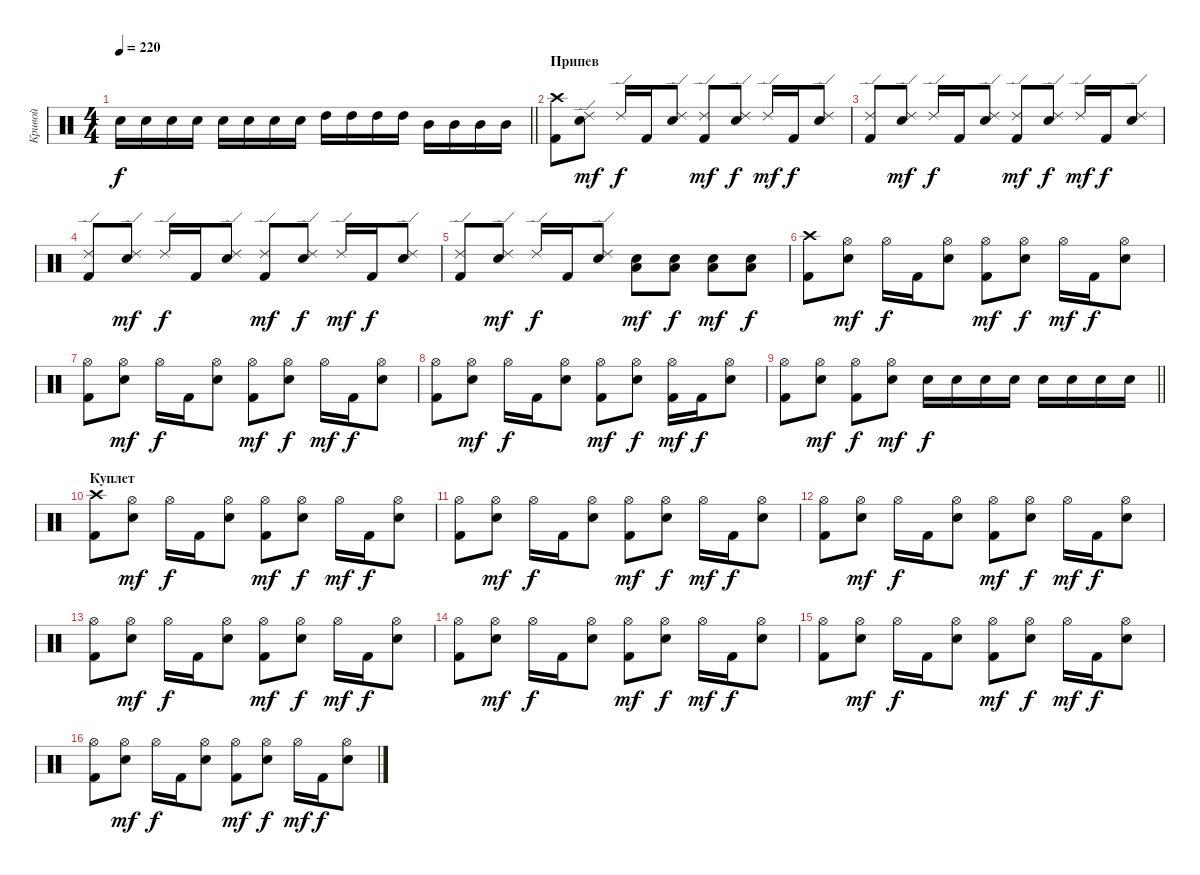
\track ("Кривой" "Кривой") {instrument percussion}
\staff {score}
\articulation defaults
\ts (4 4)
\tempo 220
\clef neutral
\barLineRight lightlight
\ks c "Snare (hit) 2".16{dy f} "Snare (hit) 2".16 "Snare (hit) 2".16 "Snare (hit) 2".16 "Snare (hit) 2".16 "Snare (hit) 2".16 "Snare (hit) 2".16 "Snare (hit) 2".16 "High Tom (hit)".16 "High Tom (hit)".16 "High Tom (hit)".16 "High Tom (hit)".16 "Mid Tom (hit)".16 "Mid Tom (hit)".16 "Mid Tom (hit)".16 "Mid Tom (hit)".16
|
\section ("" "Припев")
("Crash high (hit)" "Kick (hit) 2").8 ("Ride (edge) 2" "Snare (hit) 2").8{dy mf} "Ride (edge) 2".16{dy f} "Kick (hit) 2".16 ("Ride (edge) 2" "Snare (hit) 2").8 ("Ride (edge) 2" "Kick (hit) 2").8{dy mf} ("Ride (edge) 2" "Snare (hit) 2").8{dy f} "Ride (edge) 2".16{dy mf} "Kick (hit) 2".16{dy f} ("Ride (edge) 2" "Snare (hit) 2").8 |
("Ride (edge) 2" "Kick (hit) 2").8 ("Ride (edge) 2" "Snare (hit) 2").8{dy mf} "Ride (edge) 2".16{dy f} "Kick (hit) 2".16 ("Ride (edge) 2" "Snare (hit) 2").8 ("Ride (edge) 2" "Kick (hit) 2").8{dy mf} ("Ride (edge) 2" "Snare (hit) 2").8{dy f} "Ride (edge) 2".16{dy mf} "Kick (hit) 2".16{dy f} ("Ride (edge) 2" "Snare (hit) 2").8 |
("Ride (edge) 2" "Kick (hit) 2").8 ("Ride (edge) 2" "Snare (hit) 2").8{dy mf} "Ride (edge) 2".16{dy f} "Kick (hit) 2".16 ("Ride (edge) 2" "Snare (hit) 2").8 ("Ride (edge) 2" "Kick (hit) 2").8{dy mf} ("Ride (edge) 2" "Snare (hit) 2").8{dy f} "Ride (edge) 2".16{dy mf} "Kick (hit) 2".16{dy f} ("Ride (edge) 2" "Snare (hit) 2").8 |
("Ride (edge) 2" "Kick (hit) 2").8 ("Ride (edge) 2" "Snare (hit) 2").8{dy mf} "Ride (edge) 2".16{dy f} "Kick (hit) 2".16 ("Ride (edge) 2" "Snare (hit) 2").8 ("Low Tom (hit)" "Snare (hit) 2").8{dy mf} ("Low Tom (hit)" "Snare (hit) 2").8{dy f} ("Low Tom (hit)" "Snare (hit) 2").8{dy mf} ("Low Tom (hit)" "Snare (hit) 2").8{dy f} |
("Crash high (hit)" "Kick (hit) 2").8 ("Hi-Hat (open)" "Snare (hit) 2").8{dy mf} "Hi-Hat (open)".16{dy f} "Kick (hit) 2".16 ("Hi-Hat (open)" "Snare (hit) 2").8 ("Hi-Hat (open)" "Kick (hit) 2").8{dy mf} ("Hi-Hat (open)" "Snare (hit) 2").8{dy f} "Hi-Hat (open)".16{dy mf} "Kick (hit) 2".16{dy f} ("Hi-Hat (open)" "Snare (hit) 2").8 |
("Hi-Hat (open)" "Kick (hit) 2").8 ("Hi-Hat (open)" "Snare (hit) 2").8{dy mf} "Hi-Hat (open)".16{dy f} "Kick (hit) 2".16 ("Hi-Hat (open)" "Snare (hit) 2").8 ("Hi-Hat (open)" "Kick (hit) 2").8{dy mf} ("Hi-Hat (open)" "Snare (hit) 2").8{dy f} "Hi-Hat (open)".16{dy mf} "Kick (hit) 2".16{dy f} ("Hi-Hat (open)" "Snare (hit) 2").8 |
("Hi-Hat (open)" "Kick (hit) 2").8 ("Hi-Hat (open)" "Snare (hit) 2").8{dy mf} "Hi-Hat (open)".16{dy f} "Kick (hit) 2".16 ("Hi-Hat (open)" "Snare (hit) 2").8 ("Hi-Hat (open)" "Kick (hit) 2").8{dy mf} ("Hi-Hat (open)" "Snare (hit) 2").8{dy f} ("Hi-Hat (open)" "Kick (hit) 2").16{dy mf} "Kick (hit) 2".16{dy f} ("Hi-Hat (open)" "Snare (hit) 2").8 |
\barLineRight lightlight
("Hi-Hat (open)" "Kick (hit) 2").8 ("Hi-Hat (open)" "Snare (hit) 2").8{dy mf} ("Hi-Hat (open)" "Kick (hit) 2").8{dy f} ("Hi-Hat (open)" "Snare (hit) 2").8{dy mf} "Snare (hit) 2".16{dy f} "Snare (hit) 2".16 "Snare (hit) 2".16 "Snare (hit) 2".16 "Snare (hit) 2".16 "Snare (hit) 2".16 "Snare (hit) 2".16 "Snare (hit) 2".16 |
\section ("" "Куплет")
("Crash high (hit)" "Kick (hit) 2").8 ("Hi-Hat (open)" "Snare (hit) 2").8{dy mf} "Hi-Hat (open)".16{dy f} "Kick (hit) 2".16 ("Hi-Hat (open)" "Snare (hit) 2").8 ("Hi-Hat (open)" "Kick (hit) 2").8{dy mf} ("Hi-Hat (open)" "Snare (hit) 2").8{dy f} "Hi-Hat (open)".16{dy mf} "Kick (hit) 2".16{dy f} ("Hi-Hat (open)" "Snare (hit) 2").8 |
("Hi-Hat (open)" "Kick (hit) 2").8 ("Hi-Hat (open)" "Snare (hit) 2").8{dy mf} "Hi-Hat (open)".16{dy f} "Kick (hit) 2".16 ("Hi-Hat (open)" "Snare (hit) 2").8 ("Hi-Hat (open)" "Kick (hit) 2").8{dy mf} ("Hi-Hat (open)" "Snare (hit) 2").8{dy f} "Hi-Hat (open)".16{dy mf} "Kick (hit) 2".16{dy f} ("Hi-Hat (open)" "Snare (hit) 2").8 |
("Hi-Hat (open)" "Kick (hit) 2").8 ("Hi-Hat (open)" "Snare (hit) 2").8{dy mf} "Hi-Hat (open)".16{dy f} "Kick (hit) 2".16 ("Hi-Hat (open)" "Snare (hit) 2").8 ("Hi-Hat (open)" "Kick (hit) 2").8{dy mf} ("Hi-Hat (open)" "Snare (hit) 2").8{dy f} "Hi-Hat (open)".16{dy mf} "Kick (hit) 2".16{dy f} ("Hi-Hat (open)" "Snare (hit) 2").8 |
("Hi-Hat (open)" "Kick (hit) 2").8 ("Hi-Hat (open)" "Snare (hit) 2").8{dy mf} "Hi-Hat (open)".16{dy f} "Kick (hit) 2".16 ("Hi-Hat (open)" "Snare (hit) 2").8 ("Hi-Hat (open)" "Kick (hit) 2").8{dy mf} ("Hi-Hat (open)" "Snare (hit) 2").8{dy f} "Hi-Hat (open)".16{dy mf} "Kick (hit) 2".16{dy f} ("Hi-Hat (open)" "Snare (hit) 2").8 |
("Hi-Hat (open)" "Kick (hit) 2").8 ("Hi-Hat (open)" "Snare (hit) 2").8{dy mf} "Hi-Hat (open)".16{dy f} "Kick (hit) 2".16 ("Hi-Hat (open)" "Snare (hit) 2").8 ("Hi-Hat (open)" "Kick (hit) 2").8{dy mf} ("Hi-Hat (open)" "Snare (hit) 2").8{dy f} "Hi-Hat (open)".16{dy mf} "Kick (hit) 2".16{dy f} ("Hi-Hat (open)" "Snare (hit) 2").8 |
("Hi-Hat (open)" "Kick (hit) 2").8 ("Hi-Hat (open)" "Snare (hit) 2").8{dy mf} "Hi-Hat (open)".16{dy f} "Kick (hit) 2".16 ("Hi-Hat (open)" "Snare (hit) 2").8 ("Hi-Hat (open)" "Kick (hit) 2").8{dy mf} ("Hi-Hat (open)" "Snare (hit) 2").8{dy f} "Hi-Hat (open)".16{dy mf} "Kick (hit) 2".16{dy f} ("Hi-Hat (open)" "Snare (hit) 2").8 |
("Hi-Hat (open)" "Kick (hit) 2").8 ("Hi-Hat (open)" "Snare (hit) 2").8{dy mf} "Hi-Hat (open)".16{dy f} "Kick (hit) 2".16 ("Hi-Hat (open)" "Snare (hit) 2").8 ("Hi-Hat (open)" "Kick (hit) 2").8{dy mf} ("Hi-Hat (open)" "Snare (hit) 2").8{dy f} "Hi-Hat (open)".16{dy mf} "Kick (hit) 2".16{dy f} ("Hi-Hat (open)" "Snare (hit) 2").8
